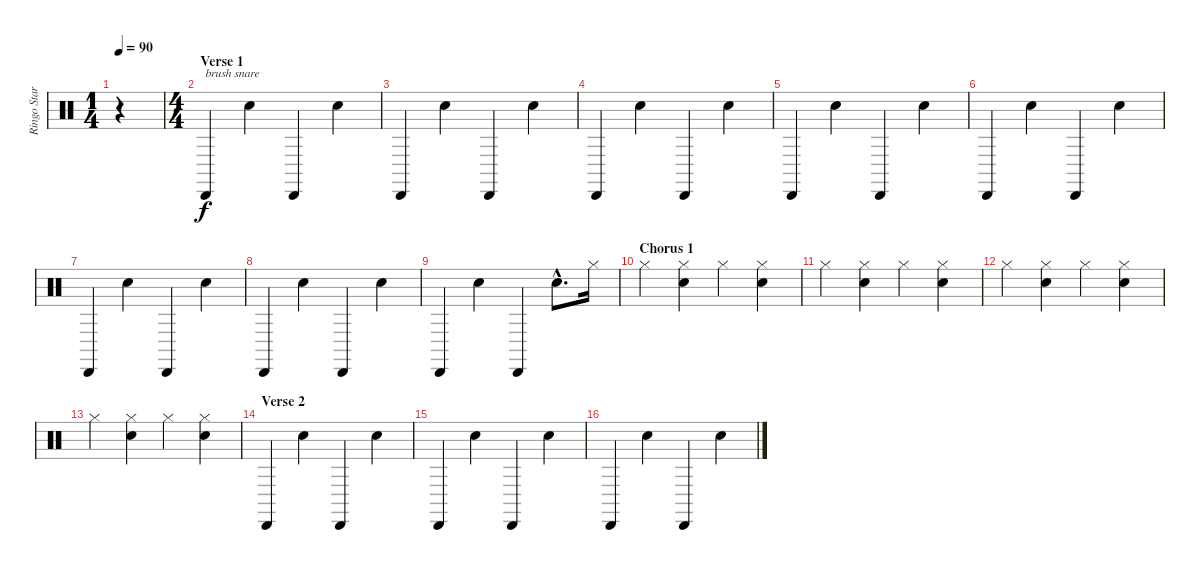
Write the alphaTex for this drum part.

\track ("Ringo Starr" "Ringo Star") {instrument percussion}
\staff {score}
\articulation defaults
\ts (1 4)
\tempo 90
\clef neutral
\ks c
r.4{dy f} |
\ts (4 4)
\section ("" "Verse 1")
"Cabasa (hit)".4{txt "brush snare"} "Snare (hit) 2".4 "Cabasa (hit)".4 "Snare (hit) 2".4 |
"Cabasa (hit)".4 "Snare (hit) 2".4 "Cabasa (hit)".4 "Snare (hit) 2".4 |
"Cabasa (hit)".4 "Snare (hit) 2".4 "Cabasa (hit)".4 "Snare (hit) 2".4 |
"Cabasa (hit)".4 "Snare (hit) 2".4 "Cabasa (hit)".4 "Snare (hit) 2".4 |
"Cabasa (hit)".4 "Snare (hit) 2".4 "Cabasa (hit)".4 "Snare (hit) 2".4 |
"Cabasa (hit)".4 "Snare (hit) 2".4 "Cabasa (hit)".4 "Snare (hit) 2".4 |
"Cabasa (hit)".4 "Snare (hit) 2".4 "Cabasa (hit)".4 "Snare (hit) 2".4 |
"Cabasa (hit)".4 "Snare (hit) 2".4 "Cabasa (hit)".4 "Snare (hit) 2"{hac}.8{d} "Hi-Hat (closed)".16 |
\section ("" "Chorus 1")
"Hi-Hat (closed)".4 ("Hi-Hat (closed)" "Snare (hit) 2").4 "Hi-Hat (closed)".4 ("Hi-Hat (closed)" "Snare (hit) 2").4 |
"Hi-Hat (closed)".4 ("Hi-Hat (closed)" "Snare (hit) 2").4 "Hi-Hat (closed)".4 ("Hi-Hat (closed)" "Snare (hit) 2").4 |
"Hi-Hat (closed)".4 ("Hi-Hat (closed)" "Snare (hit) 2").4 "Hi-Hat (closed)".4 ("Hi-Hat (closed)" "Snare (hit) 2").4 |
"Hi-Hat (closed)".4 ("Hi-Hat (closed)" "Snare (hit) 2").4 "Hi-Hat (closed)".4 ("Hi-Hat (closed)" "Snare (hit) 2").4 |
\section ("" "Verse 2")
"Cabasa (hit)".4 "Snare (hit) 2".4 "Cabasa (hit)".4 "Snare (hit) 2".4 |
"Cabasa (hit)".4 "Snare (hit) 2".4 "Cabasa (hit)".4 "Snare (hit) 2".4 |
"Cabasa (hit)".4 "Snare (hit) 2".4 "Cabasa (hit)".4 "Snare (hit) 2".4
